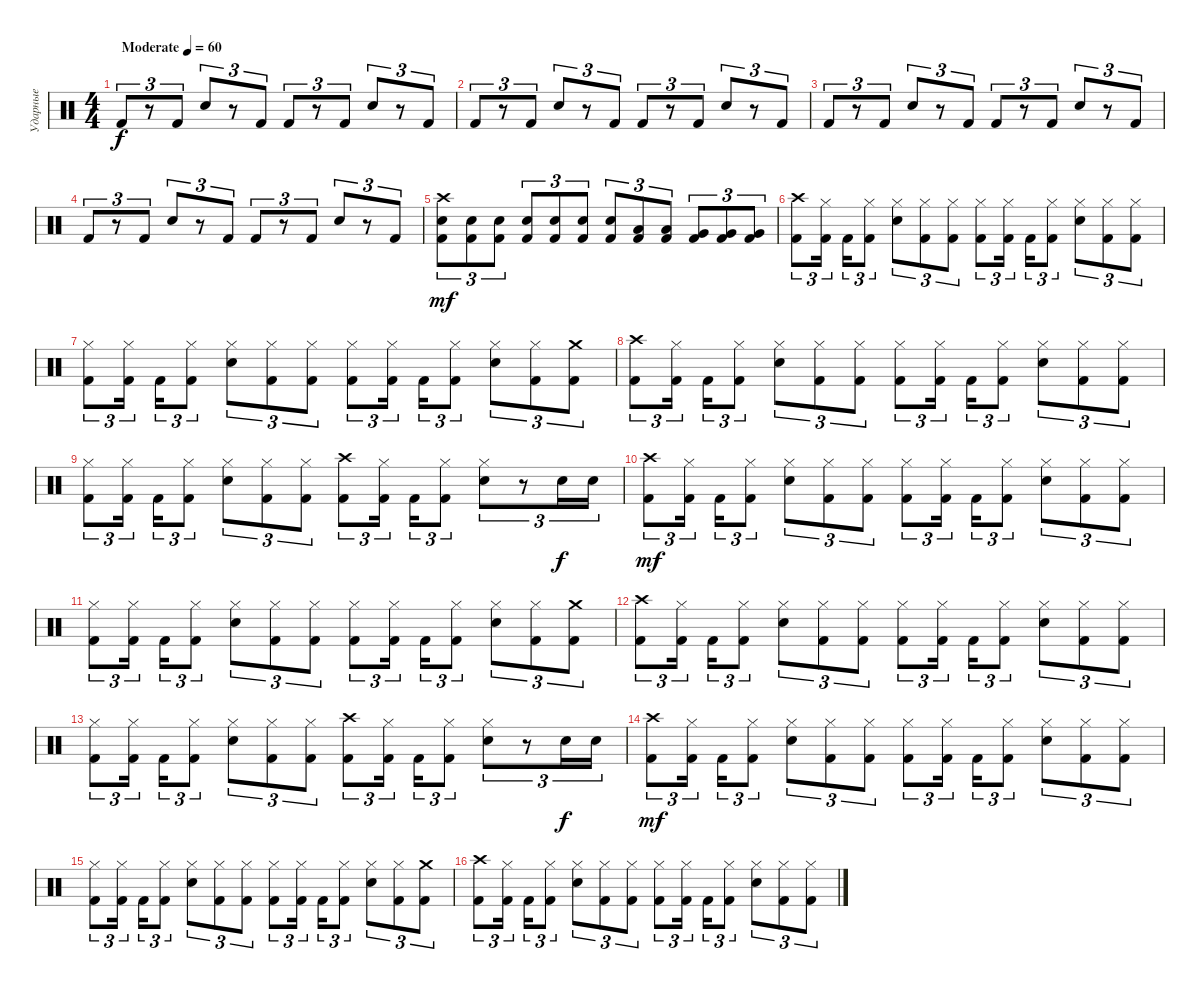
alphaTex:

\track ("Ударные" "Ударные") {instrument percussion}
\staff {score}
\articulation defaults
\ts (4 4)
\tempo (60 "Moderate")
\clef neutral
\ks c "Kick (hit) 2".8{tu (3 2) dy f}
r.8{tu (3 2)} "Kick (hit) 2".8{tu (3 2)} "Snare (hit) 2".8{tu (3 2)} r.8{tu (3 2)} "Kick (hit) 2".8{tu (3 2)} "Kick (hit) 2".8{tu (3 2)} r.8{tu (3 2)} "Kick (hit) 2".8{tu (3 2)} "Snare (hit) 2".8{tu (3 2)} r.8{tu (3 2)} "Kick (hit) 2".8{tu (3 2)} |
"Kick (hit) 2".8{tu (3 2)} r.8{tu (3 2)} "Kick (hit) 2".8{tu (3 2)} "Snare (hit) 2".8{tu (3 2)} r.8{tu (3 2)} "Kick (hit) 2".8{tu (3 2)} "Kick (hit) 2".8{tu (3 2)} r.8{tu (3 2)} "Kick (hit) 2".8{tu (3 2)} "Snare (hit) 2".8{tu (3 2)} r.8{tu (3 2)} "Kick (hit) 2".8{tu (3 2)} |
"Kick (hit) 2".8{tu (3 2)} r.8{tu (3 2)} "Kick (hit) 2".8{tu (3 2)} "Snare (hit) 2".8{tu (3 2)} r.8{tu (3 2)} "Kick (hit) 2".8{tu (3 2)} "Kick (hit) 2".8{tu (3 2)} r.8{tu (3 2)} "Kick (hit) 2".8{tu (3 2)} "Snare (hit) 2".8{tu (3 2)} r.8{tu (3 2)} "Kick (hit) 2".8{tu (3 2)} |
"Kick (hit) 2".8{tu (3 2)} r.8{tu (3 2)} "Kick (hit) 2".8{tu (3 2)} "Snare (hit) 2".8{tu (3 2)} r.8{tu (3 2)} "Kick (hit) 2".8{tu (3 2)} "Kick (hit) 2".8{tu (3 2)} r.8{tu (3 2)} "Kick (hit) 2".8{tu (3 2)} "Snare (hit) 2".8{tu (3 2)} r.8{tu (3 2)} "Kick (hit) 2".8{tu (3 2)} |
("Crash high (hit)" "Snare (hit) 2" "Kick (hit) 2").8{tu (3 2) dy mf} ("Snare (hit) 2" "Kick (hit) 2").8{tu (3 2)} ("Snare (hit) 2" "Kick (hit) 2").8{tu (3 2)} ("Snare (hit) 2" "Kick (hit) 2").8{tu (3 2)} ("Snare (hit) 2" "Kick (hit) 2").8{tu (3 2)} ("Snare (hit) 2" "Kick (hit) 2").8{tu (3 2)} ("Snare (hit) 2" "Kick (hit) 2").8{tu (3 2)} ("Low Tom (hit)" "Kick (hit) 2").8{tu (3 2)} ("Low Tom (hit)" "Kick (hit) 2").8{tu (3 2)} ("Very Low Tom (hit)" "Kick (hit) 2").8{tu (3 2)} ("Very Low Tom (hit)" "Kick (hit) 2").8{tu (3 2)} ("Very Low Tom (hit)" "Kick (hit) 2").8{tu (3 2)} |
("Crash high (hit)" "Kick (hit) 2").8{tu (3 2)} ("Hi-Hat (closed)" "Kick (hit) 2").16{tu (3 2) beam splitsecondary} "Kick (hit) 2".16{tu (3 2)} ("Hi-Hat (closed)" "Kick (hit) 2").8{tu (3 2)} ("Hi-Hat (closed)" "Snare (hit) 2").8{tu (3 2)} ("Hi-Hat (closed)" "Kick (hit) 2").8{tu (3 2)} ("Hi-Hat (closed)" "Kick (hit) 2").8{tu (3 2)} ("Hi-Hat (closed)" "Kick (hit) 2").8{tu (3 2)} ("Hi-Hat (closed)" "Kick (hit) 2").16{tu (3 2) beam splitsecondary} "Kick (hit) 2".16{tu (3 2)} ("Hi-Hat (closed)" "Kick (hit) 2").8{tu (3 2)} ("Hi-Hat (closed)" "Snare (hit) 2").8{tu (3 2)} ("Hi-Hat (closed)" "Kick (hit) 2").8{tu (3 2)} ("Hi-Hat (closed)" "Kick (hit) 2").8{tu (3 2)} |
("Hi-Hat (closed)" "Kick (hit) 2").8{tu (3 2)} ("Hi-Hat (closed)" "Kick (hit) 2").16{tu (3 2) beam splitsecondary} "Kick (hit) 2".16{tu (3 2)} ("Hi-Hat (closed)" "Kick (hit) 2").8{tu (3 2)} ("Hi-Hat (closed)" "Snare (hit) 2").8{tu (3 2)} ("Hi-Hat (closed)" "Kick (hit) 2").8{tu (3 2)} ("Hi-Hat (closed)" "Kick (hit) 2").8{tu (3 2)} ("Hi-Hat (closed)" "Kick (hit) 2").8{tu (3 2)} ("Hi-Hat (closed)" "Kick (hit) 2").16{tu (3 2) beam splitsecondary} "Kick (hit) 2".16{tu (3 2)} ("Hi-Hat (closed)" "Kick (hit) 2").8{tu (3 2)} ("Hi-Hat (closed)" "Snare (hit) 2").8{tu (3 2)} ("Hi-Hat (closed)" "Kick (hit) 2").8{tu (3 2)} ("Crash medium (hit)" "Kick (hit) 2").8{tu (3 2)} |
("Crash high (hit)" "Kick (hit) 2").8{tu (3 2)} ("Hi-Hat (closed)" "Kick (hit) 2").16{tu (3 2) beam splitsecondary} "Kick (hit) 2".16{tu (3 2)} ("Hi-Hat (closed)" "Kick (hit) 2").8{tu (3 2)} ("Hi-Hat (closed)" "Snare (hit) 2").8{tu (3 2)} ("Hi-Hat (closed)" "Kick (hit) 2").8{tu (3 2)} ("Hi-Hat (closed)" "Kick (hit) 2").8{tu (3 2)} ("Hi-Hat (closed)" "Kick (hit) 2").8{tu (3 2)} ("Hi-Hat (closed)" "Kick (hit) 2").16{tu (3 2) beam splitsecondary} "Kick (hit) 2".16{tu (3 2)} ("Hi-Hat (closed)" "Kick (hit) 2").8{tu (3 2)} ("Hi-Hat (closed)" "Snare (hit) 2").8{tu (3 2)} ("Hi-Hat (closed)" "Kick (hit) 2").8{tu (3 2)} ("Hi-Hat (closed)" "Kick (hit) 2").8{tu (3 2)} |
("Hi-Hat (closed)" "Kick (hit) 2").8{tu (3 2)} ("Hi-Hat (closed)" "Kick (hit) 2").16{tu (3 2) beam splitsecondary} "Kick (hit) 2".16{tu (3 2)} ("Hi-Hat (closed)" "Kick (hit) 2").8{tu (3 2)} ("Hi-Hat (closed)" "Snare (hit) 2").8{tu (3 2)} ("Hi-Hat (closed)" "Kick (hit) 2").8{tu (3 2)} ("Hi-Hat (closed)" "Kick (hit) 2").8{tu (3 2)} ("Crash high (hit)" "Kick (hit) 2").8{tu (3 2)} ("Hi-Hat (closed)" "Kick (hit) 2").16{tu (3 2) beam splitsecondary} "Kick (hit) 2".16{tu (3 2)} ("Hi-Hat (closed)" "Kick (hit) 2").8{tu (3 2)} ("Hi-Hat (closed)" "Snare (hit) 2").8{tu (3 2)} r.8{tu (3 2)} "Snare (hit) 2".16{tu (3 2) dy f} "Snare (hit) 2".16{tu (3 2)} |
("Crash high (hit)" "Kick (hit) 2").8{tu (3 2) dy mf} ("Hi-Hat (closed)" "Kick (hit) 2").16{tu (3 2) beam splitsecondary} "Kick (hit) 2".16{tu (3 2)} ("Hi-Hat (closed)" "Kick (hit) 2").8{tu (3 2)} ("Hi-Hat (closed)" "Snare (hit) 2").8{tu (3 2)} ("Hi-Hat (closed)" "Kick (hit) 2").8{tu (3 2)} ("Hi-Hat (closed)" "Kick (hit) 2").8{tu (3 2)} ("Hi-Hat (closed)" "Kick (hit) 2").8{tu (3 2)} ("Hi-Hat (closed)" "Kick (hit) 2").16{tu (3 2) beam splitsecondary} "Kick (hit) 2".16{tu (3 2)} ("Hi-Hat (closed)" "Kick (hit) 2").8{tu (3 2)} ("Hi-Hat (closed)" "Snare (hit) 2").8{tu (3 2)} ("Hi-Hat (closed)" "Kick (hit) 2").8{tu (3 2)} ("Hi-Hat (closed)" "Kick (hit) 2").8{tu (3 2)} |
("Hi-Hat (closed)" "Kick (hit) 2").8{tu (3 2)} ("Hi-Hat (closed)" "Kick (hit) 2").16{tu (3 2) beam splitsecondary} "Kick (hit) 2".16{tu (3 2)} ("Hi-Hat (closed)" "Kick (hit) 2").8{tu (3 2)} ("Hi-Hat (closed)" "Snare (hit) 2").8{tu (3 2)} ("Hi-Hat (closed)" "Kick (hit) 2").8{tu (3 2)} ("Hi-Hat (closed)" "Kick (hit) 2").8{tu (3 2)} ("Hi-Hat (closed)" "Kick (hit) 2").8{tu (3 2)} ("Hi-Hat (closed)" "Kick (hit) 2").16{tu (3 2) beam splitsecondary} "Kick (hit) 2".16{tu (3 2)} ("Hi-Hat (closed)" "Kick (hit) 2").8{tu (3 2)} ("Hi-Hat (closed)" "Snare (hit) 2").8{tu (3 2)} ("Hi-Hat (closed)" "Kick (hit) 2").8{tu (3 2)} ("Crash medium (hit)" "Kick (hit) 2").8{tu (3 2)} |
("Crash high (hit)" "Kick (hit) 2").8{tu (3 2)} ("Hi-Hat (closed)" "Kick (hit) 2").16{tu (3 2) beam splitsecondary} "Kick (hit) 2".16{tu (3 2)} ("Hi-Hat (closed)" "Kick (hit) 2").8{tu (3 2)} ("Hi-Hat (closed)" "Snare (hit) 2").8{tu (3 2)} ("Hi-Hat (closed)" "Kick (hit) 2").8{tu (3 2)} ("Hi-Hat (closed)" "Kick (hit) 2").8{tu (3 2)} ("Hi-Hat (closed)" "Kick (hit) 2").8{tu (3 2)} ("Hi-Hat (closed)" "Kick (hit) 2").16{tu (3 2) beam splitsecondary} "Kick (hit) 2".16{tu (3 2)} ("Hi-Hat (closed)" "Kick (hit) 2").8{tu (3 2)} ("Hi-Hat (closed)" "Snare (hit) 2").8{tu (3 2)} ("Hi-Hat (closed)" "Kick (hit) 2").8{tu (3 2)} ("Hi-Hat (closed)" "Kick (hit) 2").8{tu (3 2)} |
("Hi-Hat (closed)" "Kick (hit) 2").8{tu (3 2)} ("Hi-Hat (closed)" "Kick (hit) 2").16{tu (3 2) beam splitsecondary} "Kick (hit) 2".16{tu (3 2)} ("Hi-Hat (closed)" "Kick (hit) 2").8{tu (3 2)} ("Hi-Hat (closed)" "Snare (hit) 2").8{tu (3 2)} ("Hi-Hat (closed)" "Kick (hit) 2").8{tu (3 2)} ("Hi-Hat (closed)" "Kick (hit) 2").8{tu (3 2)} ("Crash high (hit)" "Kick (hit) 2").8{tu (3 2)} ("Hi-Hat (closed)" "Kick (hit) 2").16{tu (3 2) beam splitsecondary} "Kick (hit) 2".16{tu (3 2)} ("Hi-Hat (closed)" "Kick (hit) 2").8{tu (3 2)} ("Hi-Hat (closed)" "Snare (hit) 2").8{tu (3 2)} r.8{tu (3 2)} "Snare (hit) 2".16{tu (3 2) dy f} "Snare (hit) 2".16{tu (3 2)} |
("Crash high (hit)" "Kick (hit) 2").8{tu (3 2) dy mf} ("Hi-Hat (closed)" "Kick (hit) 2").16{tu (3 2) beam splitsecondary} "Kick (hit) 2".16{tu (3 2)} ("Hi-Hat (closed)" "Kick (hit) 2").8{tu (3 2)} ("Hi-Hat (closed)" "Snare (hit) 2").8{tu (3 2)} ("Hi-Hat (closed)" "Kick (hit) 2").8{tu (3 2)} ("Hi-Hat (closed)" "Kick (hit) 2").8{tu (3 2)} ("Hi-Hat (closed)" "Kick (hit) 2").8{tu (3 2)} ("Hi-Hat (closed)" "Kick (hit) 2").16{tu (3 2) beam splitsecondary} "Kick (hit) 2".16{tu (3 2)} ("Hi-Hat (closed)" "Kick (hit) 2").8{tu (3 2)} ("Hi-Hat (closed)" "Snare (hit) 2").8{tu (3 2)} ("Hi-Hat (closed)" "Kick (hit) 2").8{tu (3 2)} ("Hi-Hat (closed)" "Kick (hit) 2").8{tu (3 2)} |
("Hi-Hat (closed)" "Kick (hit) 2").8{tu (3 2)} ("Hi-Hat (closed)" "Kick (hit) 2").16{tu (3 2) beam splitsecondary} "Kick (hit) 2".16{tu (3 2)} ("Hi-Hat (closed)" "Kick (hit) 2").8{tu (3 2)} ("Hi-Hat (closed)" "Snare (hit) 2").8{tu (3 2)} ("Hi-Hat (closed)" "Kick (hit) 2").8{tu (3 2)} ("Hi-Hat (closed)" "Kick (hit) 2").8{tu (3 2)} ("Hi-Hat (closed)" "Kick (hit) 2").8{tu (3 2)} ("Hi-Hat (closed)" "Kick (hit) 2").16{tu (3 2) beam splitsecondary} "Kick (hit) 2".16{tu (3 2)} ("Hi-Hat (closed)" "Kick (hit) 2").8{tu (3 2)} ("Hi-Hat (closed)" "Snare (hit) 2").8{tu (3 2)} ("Hi-Hat (closed)" "Kick (hit) 2").8{tu (3 2)} ("Crash medium (hit)" "Kick (hit) 2").8{tu (3 2)} |
("Crash high (hit)" "Kick (hit) 2").8{tu (3 2)} ("Hi-Hat (closed)" "Kick (hit) 2").16{tu (3 2) beam splitsecondary} "Kick (hit) 2".16{tu (3 2)} ("Hi-Hat (closed)" "Kick (hit) 2").8{tu (3 2)} ("Hi-Hat (closed)" "Snare (hit) 2").8{tu (3 2)} ("Hi-Hat (closed)" "Kick (hit) 2").8{tu (3 2)} ("Hi-Hat (closed)" "Kick (hit) 2").8{tu (3 2)} ("Hi-Hat (closed)" "Kick (hit) 2").8{tu (3 2)} ("Hi-Hat (closed)" "Kick (hit) 2").16{tu (3 2) beam splitsecondary} "Kick (hit) 2".16{tu (3 2)} ("Hi-Hat (closed)" "Kick (hit) 2").8{tu (3 2)} ("Hi-Hat (closed)" "Snare (hit) 2").8{tu (3 2)} ("Hi-Hat (closed)" "Kick (hit) 2").8{tu (3 2)} ("Hi-Hat (closed)" "Kick (hit) 2").8{tu (3 2)}
